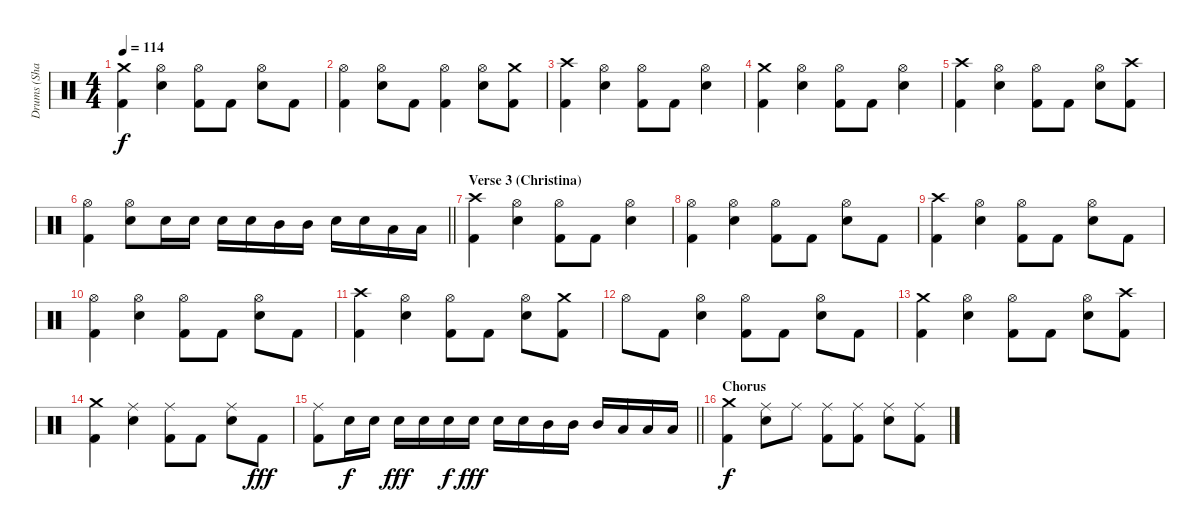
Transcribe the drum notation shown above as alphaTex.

\track ("Drums (Shawn)" "Drums (Sha") {instrument percussion}
\staff {score}
\articulation defaults
\ts (4 4)
\tempo 114
\clef neutral
\ks c
("Crash medium (hit)" "Kick (hit) 2").4{dy f} ("Hi-Hat (open)" "Snare (hit) 2").4 ("Hi-Hat (open)" "Kick (hit) 2").8 "Kick (hit) 2".8 ("Hi-Hat (open)" "Snare (hit) 2").8 "Kick (hit) 2".8 |
("Hi-Hat (open)" "Kick (hit) 2").4 ("Hi-Hat (open)" "Snare (hit) 2").8 "Kick (hit) 2".8 ("Hi-Hat (open)" "Kick (hit) 2").4 ("Hi-Hat (open)" "Snare (hit) 2").8 ("Crash medium (hit)" "Kick (hit) 2").8 |
("Crash high (hit)" "Kick (hit) 2").4 ("Hi-Hat (open)" "Snare (hit) 2").4 ("Hi-Hat (open)" "Kick (hit) 2").8 "Kick (hit) 2".8 ("Hi-Hat (open)" "Snare (hit) 2").4 |
("Crash medium (hit)" "Kick (hit) 2").4 ("Hi-Hat (open)" "Snare (hit) 2").4 ("Hi-Hat (open)" "Kick (hit) 2").8 "Kick (hit) 2".8 ("Hi-Hat (open)" "Snare (hit) 2").4 |
("Crash high (hit)" "Kick (hit) 2").4 ("Hi-Hat (open)" "Snare (hit) 2").4 ("Hi-Hat (open)" "Kick (hit) 2").8 "Kick (hit) 2".8 ("Hi-Hat (open)" "Snare (hit) 2").8 ("Crash high (hit)" "Kick (hit) 2").8 |
\barLineRight lightlight
("Hi-Hat (open)" "Kick (hit) 2").4 ("Hi-Hat (open)" "Snare (hit) 2").8 "Snare (hit) 2".16 "Snare (hit) 2".16 "Snare (hit) 2".16 "Snare (hit) 2".16 "Mid Tom (hit)".16 "Mid Tom (hit)".16 "Snare (hit) 2".16 "Snare (hit) 2".16 "Low Tom (hit)".16 "Low Tom (hit)".16 |
\section ("" "Verse 3 (Christina)")
("Crash high (hit)" "Kick (hit) 2").4 ("Hi-Hat (open)" "Snare (hit) 2").4 ("Hi-Hat (open)" "Kick (hit) 2").8 "Kick (hit) 2".8 ("Hi-Hat (open)" "Snare (hit) 2").4 |
("Hi-Hat (open)" "Kick (hit) 2").4 ("Hi-Hat (open)" "Snare (hit) 2").4 ("Hi-Hat (open)" "Kick (hit) 2").8 "Kick (hit) 2".8 ("Hi-Hat (open)" "Snare (hit) 2").8 "Kick (hit) 2".8 |
("Crash high (hit)" "Kick (hit) 2").4 ("Hi-Hat (open)" "Snare (hit) 2").4 ("Hi-Hat (open)" "Kick (hit) 2").8 "Kick (hit) 2".8 ("Hi-Hat (open)" "Snare (hit) 2").8 "Kick (hit) 2".8 |
("Hi-Hat (open)" "Kick (hit) 2").4 ("Hi-Hat (open)" "Snare (hit) 2").4 ("Hi-Hat (open)" "Kick (hit) 2").8 "Kick (hit) 2".8 ("Hi-Hat (open)" "Snare (hit) 2").8 "Kick (hit) 2".8 |
("Crash high (hit)" "Kick (hit) 2").4 ("Hi-Hat (open)" "Snare (hit) 2").4 ("Hi-Hat (open)" "Kick (hit) 2").8 "Kick (hit) 2".8 ("Hi-Hat (open)" "Snare (hit) 2").8 ("Crash medium (hit)" "Kick (hit) 2").8 |
"Hi-Hat (open)".8 "Kick (hit) 2".8 ("Hi-Hat (open)" "Snare (hit) 2").4 ("Hi-Hat (open)" "Kick (hit) 2").8 "Kick (hit) 2".8 ("Hi-Hat (open)" "Snare (hit) 2").8 "Kick (hit) 2".8 |
("Crash medium (hit)" "Kick (hit) 2").4 ("Hi-Hat (open)" "Snare (hit) 2").4 ("Hi-Hat (open)" "Kick (hit) 2").8 "Kick (hit) 2".8 ("Hi-Hat (open)" "Snare (hit) 2").8 ("Crash high (hit)" "Kick (hit) 2").8 |
("Crash medium (hit)" "Kick (hit) 2").4 ("Ride (middle)" "Snare (hit) 2").4 ("Ride (middle)" "Kick (hit) 2").8 "Kick (hit) 2".8 ("Ride (middle)" "Snare (hit) 2").8 "Kick (hit) 2".8{dy fff} |
\barLineRight lightlight
("Ride (middle)" "Kick (hit) 2").8 "Snare (hit) 2".16{dy f} "Snare (hit) 2".16 "Snare (hit) 2".16{dy fff} "Snare (hit) 2".16 "Snare (hit) 2".16{dy f} "Snare (hit) 2".16{dy fff} "Snare (hit) 2".16 "Snare (hit) 2".16 "Mid Tom (hit)".16 "Mid Tom (hit)".16 "Mid Tom (hit)".16 "Low Tom (hit)".16 "Low Tom (hit)".16 "Low Tom (hit)".16 |
\section ("" "Chorus")
("Crash medium (hit)" "Kick (hit) 2").4{dy f} ("Ride (middle)" "Snare (hit) 2").8 "Ride (middle)".8 ("Ride (middle)" "Kick (hit) 2").8 ("Ride (middle)" "Kick (hit) 2").8 ("Ride (middle)" "Snare (hit) 2").8 ("Ride (middle)" "Kick (hit) 2").8
